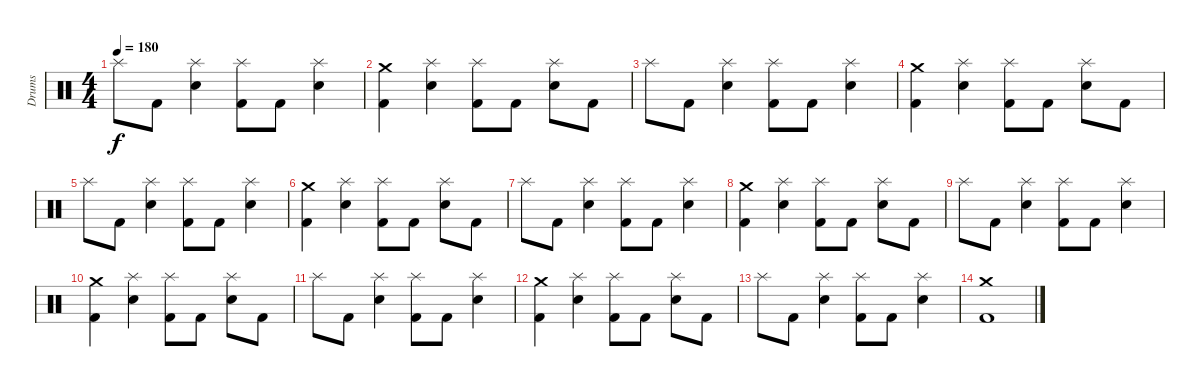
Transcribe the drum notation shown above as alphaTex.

\track ("Drums" "Drums") {instrument percussion}
\staff {score}
\articulation defaults
\ts (4 4)
\tempo 180
\clef neutral
\ks c "Splash (hit)".8{dy f} "Kick (hit) 2".8
("Splash (hit)" "Electric Snare (hit)").4 ("Splash (hit)" "Kick (hit) 2").8 "Kick (hit) 2".8 ("Splash (hit)" "Electric Snare (hit)").4 |
("Crash medium (hit)" "Kick (hit) 2").4 ("Splash (hit)" "Electric Snare (hit)").4 ("Splash (hit)" "Kick (hit) 2").8 "Kick (hit) 2".8 ("Splash (hit)" "Electric Snare (hit)").8 "Kick (hit) 2".8 |
"Splash (hit)".8 "Kick (hit) 2".8 ("Splash (hit)" "Electric Snare (hit)").4 ("Splash (hit)" "Kick (hit) 2").8 "Kick (hit) 2".8 ("Splash (hit)" "Electric Snare (hit)").4 |
("Crash medium (hit)" "Kick (hit) 2").4 ("Splash (hit)" "Electric Snare (hit)").4 ("Splash (hit)" "Kick (hit) 2").8 "Kick (hit) 2".8 ("Splash (hit)" "Electric Snare (hit)").8 "Kick (hit) 2".8 |
"Splash (hit)".8 "Kick (hit) 2".8 ("Splash (hit)" "Electric Snare (hit)").4 ("Splash (hit)" "Kick (hit) 2").8 "Kick (hit) 2".8 ("Splash (hit)" "Electric Snare (hit)").4 |
("Crash medium (hit)" "Kick (hit) 2").4 ("Splash (hit)" "Electric Snare (hit)").4 ("Splash (hit)" "Kick (hit) 2").8 "Kick (hit) 2".8 ("Splash (hit)" "Electric Snare (hit)").8 "Kick (hit) 2".8 |
"Splash (hit)".8 "Kick (hit) 2".8 ("Splash (hit)" "Electric Snare (hit)").4 ("Splash (hit)" "Kick (hit) 2").8 "Kick (hit) 2".8 ("Splash (hit)" "Electric Snare (hit)").4 |
("Crash medium (hit)" "Kick (hit) 2").4 ("Splash (hit)" "Electric Snare (hit)").4 ("Splash (hit)" "Kick (hit) 2").8 "Kick (hit) 2".8 ("Splash (hit)" "Electric Snare (hit)").8 "Kick (hit) 2".8 |
"Splash (hit)".8 "Kick (hit) 2".8 ("Splash (hit)" "Electric Snare (hit)").4 ("Splash (hit)" "Kick (hit) 2").8 "Kick (hit) 2".8 ("Splash (hit)" "Electric Snare (hit)").4 |
("Crash medium (hit)" "Kick (hit) 2").4 ("Splash (hit)" "Electric Snare (hit)").4 ("Splash (hit)" "Kick (hit) 2").8 "Kick (hit) 2".8 ("Splash (hit)" "Electric Snare (hit)").8 "Kick (hit) 2".8 |
"Splash (hit)".8 "Kick (hit) 2".8 ("Splash (hit)" "Electric Snare (hit)").4 ("Splash (hit)" "Kick (hit) 2").8 "Kick (hit) 2".8 ("Splash (hit)" "Electric Snare (hit)").4 |
("Crash medium (hit)" "Kick (hit) 2").4 ("Splash (hit)" "Electric Snare (hit)").4 ("Splash (hit)" "Kick (hit) 2").8 "Kick (hit) 2".8 ("Splash (hit)" "Electric Snare (hit)").8 "Kick (hit) 2".8 |
"Splash (hit)".8 "Kick (hit) 2".8 ("Splash (hit)" "Electric Snare (hit)").4 ("Splash (hit)" "Kick (hit) 2").8 "Kick (hit) 2".8 ("Splash (hit)" "Electric Snare (hit)").4 |
("Crash medium (hit)" "Kick (hit) 2").1
